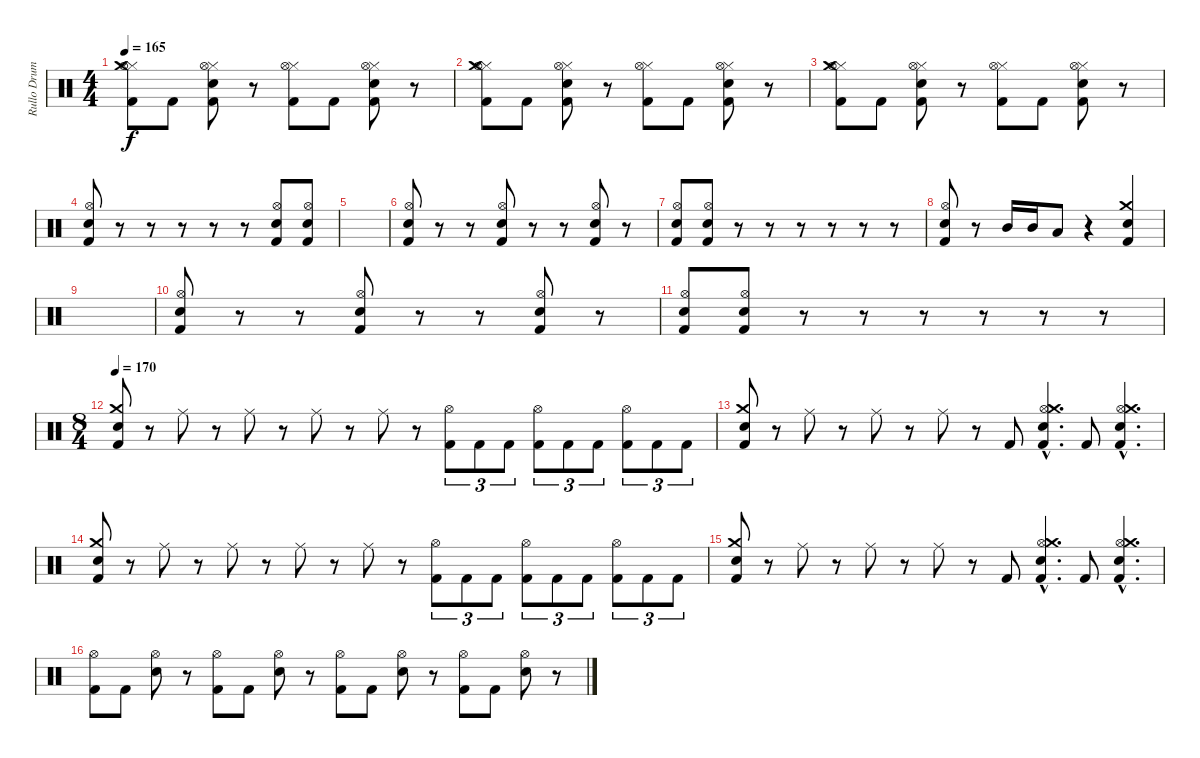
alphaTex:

\track ("Rullo Drums" "Rullo Drum") {instrument percussion}
\staff {score}
\articulation defaults
\ts (4 4)
\tempo 165
\clef neutral
\ks c
("Hi-Hat (closed)" "Kick (hit) 2" "Crash medium (hit)" "Hi-Hat (open)").8{dy f} "Kick (hit) 2".8 ("Electric Snare (hit)" "Hi-Hat (closed)" "Kick (hit) 2" "Hi-Hat (open)").8 r.8 ("Hi-Hat (closed)" "Kick (hit) 2" "Hi-Hat (open)").8 "Kick (hit) 2".8 ("Hi-Hat (closed)" "Electric Snare (hit)" "Kick (hit) 2" "Hi-Hat (open)").8 r.8 |
("Hi-Hat (closed)" "Kick (hit) 2" "Crash medium (hit)" "Hi-Hat (open)").8 "Kick (hit) 2".8 ("Electric Snare (hit)" "Hi-Hat (closed)" "Kick (hit) 2" "Hi-Hat (open)").8 r.8 ("Hi-Hat (closed)" "Kick (hit) 2" "Hi-Hat (open)").8 "Kick (hit) 2".8 ("Hi-Hat (closed)" "Electric Snare (hit)" "Kick (hit) 2" "Hi-Hat (open)").8 r.8 |
("Hi-Hat (closed)" "Kick (hit) 2" "Crash medium (hit)" "Hi-Hat (open)").8 "Kick (hit) 2".8 ("Electric Snare (hit)" "Hi-Hat (closed)" "Kick (hit) 2" "Hi-Hat (open)").8 r.8 ("Hi-Hat (closed)" "Kick (hit) 2" "Hi-Hat (open)").8 "Kick (hit) 2".8 ("Hi-Hat (closed)" "Electric Snare (hit)" "Kick (hit) 2" "Hi-Hat (open)").8 r.8 |
("Snare (hit) 2" "Kick (hit) 2" "Hi-Hat (open)").8 r.8 r.8 r.8 r.8 r.8 ("Snare (hit) 2" "Kick (hit) 2" "Hi-Hat (open)").8 ("Snare (hit) 2" "Kick (hit) 2" "Hi-Hat (open)").8 |
|
("Snare (hit) 2" "Kick (hit) 2" "Hi-Hat (open)").8 r.8 r.8 ("Snare (hit) 2" "Kick (hit) 2" "Hi-Hat (open)").8 r.8 r.8 ("Snare (hit) 2" "Kick (hit) 2" "Hi-Hat (open)").8 r.8 |
("Snare (hit) 2" "Kick (hit) 2" "Hi-Hat (open)").8 ("Snare (hit) 2" "Kick (hit) 2" "Hi-Hat (open)").8 r.8 r.8 r.8 r.8 r.8 r.8 |
("Snare (hit) 2" "Kick (hit) 2" "Hi-Hat (open)").8 r.8 "Mid Tom (hit)".16 "Mid Tom (hit)".16 "Low Tom (hit)".8 r.4 ("Crash medium (hit)" "Snare (hit) 2" "Kick (hit) 2").4 |
|
("Snare (hit) 2" "Kick (hit) 2" "Hi-Hat (open)").8 r.8 r.8 ("Snare (hit) 2" "Kick (hit) 2" "Hi-Hat (open)").8 r.8 r.8 ("Snare (hit) 2" "Kick (hit) 2" "Hi-Hat (open)").8 r.8 |
("Snare (hit) 2" "Kick (hit) 2" "Hi-Hat (open)").8 ("Snare (hit) 2" "Kick (hit) 2" "Hi-Hat (open)").8 r.8 r.8 r.8 r.8 r.8 r.8 |
\ts (8 4)
\tempo 170
("Kick (hit) 2" "Snare (hit) 2" "Crash medium (hit)").8 r.8 "Ride (middle)".8 r.8 "Ride (middle)".8 r.8 "Ride (middle)".8 r.8 "Ride (middle)".8 r.8 ("Kick (hit) 2" "Hi-Hat (open)").8{tu (3 2)} "Kick (hit) 2".8{tu (3 2)} "Kick (hit) 2".8{tu (3 2)} ("Kick (hit) 2" "Hi-Hat (open)").8{tu (3 2)} "Kick (hit) 2".8{tu (3 2)} "Kick (hit) 2".8{tu (3 2)} ("Kick (hit) 2" "Hi-Hat (open)").8{tu (3 2)} "Kick (hit) 2".8{tu (3 2)} "Kick (hit) 2".8{tu (3 2)} |
("Kick (hit) 2" "Snare (hit) 2" "Crash medium (hit)").8 r.8 "Ride (middle)".8 r.8 "Ride (middle)".8 r.8 "Ride (middle)".8 r.8 "Kick (hit) 2".8 ("Kick (hit) 2"{hac} "Snare (hit) 2"{hac} "Hi-Hat (open)"{hac} "Crash medium (hit)"{hac}).4{d} "Kick (hit) 2".8 ("Kick (hit) 2"{hac} "Snare (hit) 2"{hac} "Hi-Hat (open)"{hac} "Crash medium (hit)"{hac}).4{d} |
("Kick (hit) 2" "Snare (hit) 2" "Crash medium (hit)").8 r.8 "Ride (middle)".8 r.8 "Ride (middle)".8 r.8 "Ride (middle)".8 r.8 "Ride (middle)".8 r.8 ("Kick (hit) 2" "Hi-Hat (open)").8{tu (3 2)} "Kick (hit) 2".8{tu (3 2)} "Kick (hit) 2".8{tu (3 2)} ("Kick (hit) 2" "Hi-Hat (open)").8{tu (3 2)} "Kick (hit) 2".8{tu (3 2)} "Kick (hit) 2".8{tu (3 2)} ("Kick (hit) 2" "Hi-Hat (open)").8{tu (3 2)} "Kick (hit) 2".8{tu (3 2)} "Kick (hit) 2".8{tu (3 2)} |
("Kick (hit) 2" "Snare (hit) 2" "Crash medium (hit)").8 r.8 "Ride (middle)".8 r.8 "Ride (middle)".8 r.8 "Ride (middle)".8 r.8 "Kick (hit) 2".8 ("Kick (hit) 2"{hac} "Snare (hit) 2"{hac} "Hi-Hat (open)"{hac} "Crash medium (hit)"{hac}).4{d} "Kick (hit) 2".8 ("Kick (hit) 2"{hac} "Snare (hit) 2"{hac} "Hi-Hat (open)"{hac} "Crash medium (hit)"{hac}).4{d} |
("Hi-Hat (open)" "Kick (hit) 2").8 "Kick (hit) 2".8 ("Hi-Hat (open)" "Snare (hit) 2").8 r.8 ("Hi-Hat (open)" "Kick (hit) 2").8 "Kick (hit) 2".8 ("Hi-Hat (open)" "Snare (hit) 2").8 r.8 ("Hi-Hat (open)" "Kick (hit) 2").8 "Kick (hit) 2".8 ("Hi-Hat (open)" "Snare (hit) 2").8 r.8 ("Hi-Hat (open)" "Kick (hit) 2").8 "Kick (hit) 2".8 ("Hi-Hat (open)" "Snare (hit) 2").8 r.8
